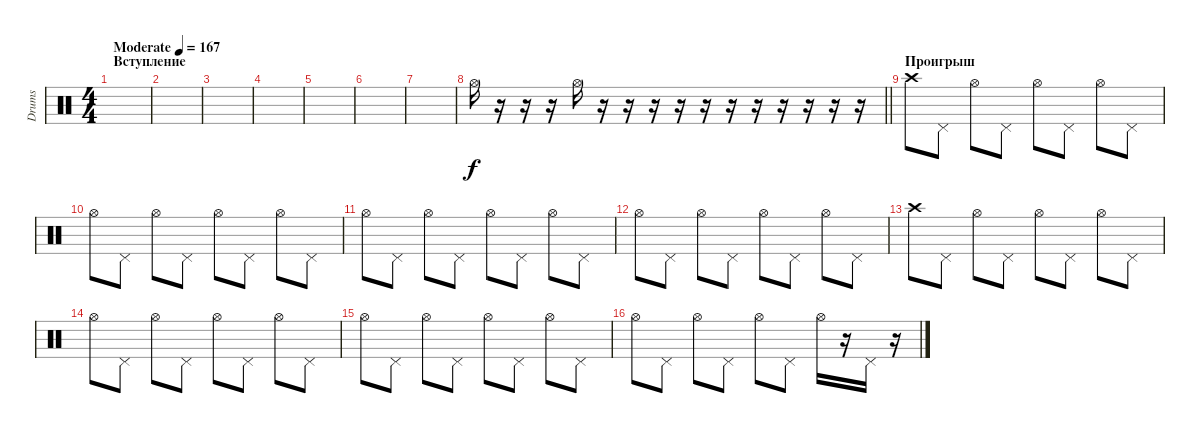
\track ("Drums" "Drums") {instrument percussion}
\staff {score}
\articulation defaults
\ts (4 4)
\section ("" "Вступление")
\tempo (167 "Moderate")
\clef neutral
\ks c
|
|
|
|
|
|
|
\barLineRight lightlight "Hi-Hat (open)".16
r.16 r.16 r.16 "Hi-Hat (open)".16 r.16 r.16 r.16 r.16 r.16 r.16 r.16 r.16 r.16 r.16 r.16 |
\section ("" "Проигрыш")
"Crash high (hit)".8 "Pedal Hi-Hat (hit)".8 "Hi-Hat (open)".8 "Pedal Hi-Hat (hit)".8 "Hi-Hat (open)".8 "Pedal Hi-Hat (hit)".8 "Hi-Hat (open)".8 "Pedal Hi-Hat (hit)".8 |
"Hi-Hat (open)".8 "Pedal Hi-Hat (hit)".8 "Hi-Hat (open)".8 "Pedal Hi-Hat (hit)".8 "Hi-Hat (open)".8 "Pedal Hi-Hat (hit)".8 "Hi-Hat (open)".8 "Pedal Hi-Hat (hit)".8 |
"Hi-Hat (open)".8 "Pedal Hi-Hat (hit)".8 "Hi-Hat (open)".8 "Pedal Hi-Hat (hit)".8 "Hi-Hat (open)".8 "Pedal Hi-Hat (hit)".8 "Hi-Hat (open)".8 "Pedal Hi-Hat (hit)".8 |
"Hi-Hat (open)".8 "Pedal Hi-Hat (hit)".8 "Hi-Hat (open)".8 "Pedal Hi-Hat (hit)".8 "Hi-Hat (open)".8 "Pedal Hi-Hat (hit)".8 "Hi-Hat (open)".8 "Pedal Hi-Hat (hit)".8 |
"Crash high (hit)".8 "Pedal Hi-Hat (hit)".8 "Hi-Hat (open)".8 "Pedal Hi-Hat (hit)".8 "Hi-Hat (open)".8 "Pedal Hi-Hat (hit)".8 "Hi-Hat (open)".8 "Pedal Hi-Hat (hit)".8 |
"Hi-Hat (open)".8 "Pedal Hi-Hat (hit)".8 "Hi-Hat (open)".8 "Pedal Hi-Hat (hit)".8 "Hi-Hat (open)".8 "Pedal Hi-Hat (hit)".8 "Hi-Hat (open)".8 "Pedal Hi-Hat (hit)".8 |
"Hi-Hat (open)".8 "Pedal Hi-Hat (hit)".8 "Hi-Hat (open)".8 "Pedal Hi-Hat (hit)".8 "Hi-Hat (open)".8 "Pedal Hi-Hat (hit)".8 "Hi-Hat (open)".8 "Pedal Hi-Hat (hit)".8 |
"Hi-Hat (open)".8 "Pedal Hi-Hat (hit)".8 "Hi-Hat (open)".8 "Pedal Hi-Hat (hit)".8 "Hi-Hat (open)".8 "Pedal Hi-Hat (hit)".8 "Hi-Hat (open)".16 r.16 "Pedal Hi-Hat (hit)".16 r.16
